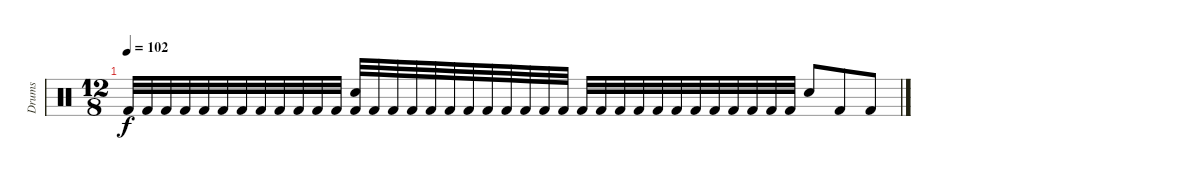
\track ("Drums" "Drums") {instrument percussion}
\staff {score}
\articulation defaults
\ts (12 8)
\tempo 102
\clef neutral
\ks c "Kick (hit) 2".32{dy f} "Kick (hit) 2".32 "Kick (hit) 2".32 "Kick (hit) 2".32 "Kick (hit) 2".32 "Kick (hit) 2".32 "Kick (hit) 2".32 "Kick (hit) 2".32 "Kick (hit) 2".32 "Kick (hit) 2".32 "Kick (hit) 2".32 "Kick (hit) 2".32
("Electric Snare (hit)" "Kick (hit) 2").32 "Kick (hit) 2".32 "Kick (hit) 2".32 "Kick (hit) 2".32 "Kick (hit) 2".32 "Kick (hit) 2".32 "Kick (hit) 2".32 "Kick (hit) 2".32 "Kick (hit) 2".32 "Kick (hit) 2".32 "Kick (hit) 2".32 "Kick (hit) 2".32 "Kick (hit) 2".32 "Kick (hit) 2".32 "Kick (hit) 2".32 "Kick (hit) 2".32 "Kick (hit) 2".32 "Kick (hit) 2".32 "Kick (hit) 2".32 "Kick (hit) 2".32 "Kick (hit) 2".32 "Kick (hit) 2".32 "Kick (hit) 2".32 "Kick (hit) 2".32 "Electric Snare (hit)".8 "Kick (hit) 2".8 "Kick (hit) 2".8
